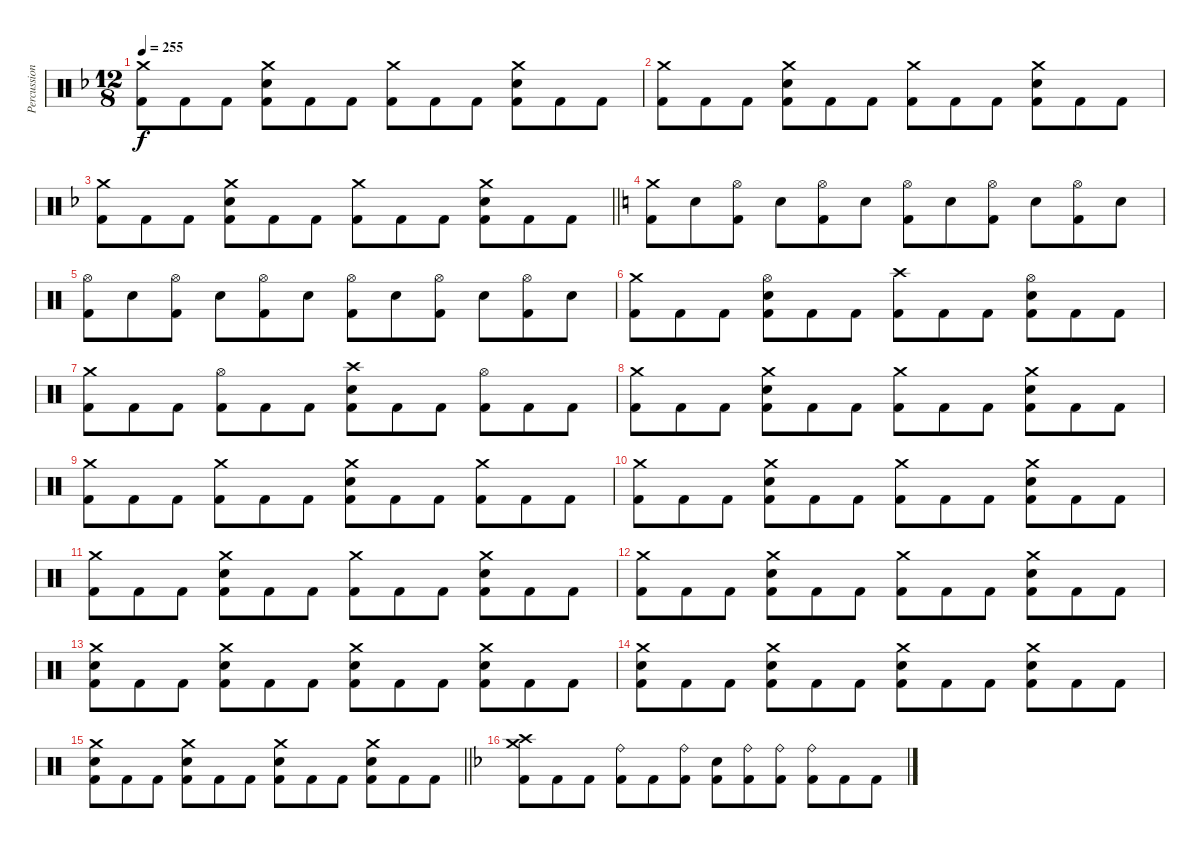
\track ("Percussion" "Percussion") {instrument percussion}
\staff {score}
\articulation defaults
\ts (12 8)
\tempo 255
\clef neutral
\ks dminor
("Crash medium (hit)" "Kick (hit) 2").8{dy f} "Kick (hit) 2".8 "Kick (hit) 2".8 ("Crash medium (hit)" "Electric Snare (hit)" "Kick (hit) 2").8 "Kick (hit) 2".8 "Kick (hit) 2".8 ("Crash medium (hit)" "Kick (hit) 2").8 "Kick (hit) 2".8 "Kick (hit) 2".8 ("Crash medium (hit)" "Electric Snare (hit)" "Kick (hit) 2").8 "Kick (hit) 2".8 "Kick (hit) 2".8 |
("Crash medium (hit)" "Kick (hit) 2").8 "Kick (hit) 2".8 "Kick (hit) 2".8 ("Crash medium (hit)" "Electric Snare (hit)" "Kick (hit) 2").8 "Kick (hit) 2".8 "Kick (hit) 2".8 ("Crash medium (hit)" "Kick (hit) 2").8 "Kick (hit) 2".8 "Kick (hit) 2".8 ("Crash medium (hit)" "Electric Snare (hit)" "Kick (hit) 2").8 "Kick (hit) 2".8 "Kick (hit) 2".8 |
\barLineRight lightlight
("Crash medium (hit)" "Kick (hit) 2").8 "Kick (hit) 2".8 "Kick (hit) 2".8 ("Crash medium (hit)" "Electric Snare (hit)" "Kick (hit) 2").8 "Kick (hit) 2".8 "Kick (hit) 2".8 ("Crash medium (hit)" "Kick (hit) 2").8 "Kick (hit) 2".8 "Kick (hit) 2".8 ("Crash medium (hit)" "Electric Snare (hit)" "Kick (hit) 2").8 "Kick (hit) 2".8 "Kick (hit) 2".8 |
\section ("" "")
\ks c
("Crash medium (hit)" "Kick (hit) 2").8 "Electric Snare (hit)".8 ("Hi-Hat (open)" "Kick (hit) 2").8 "Electric Snare (hit)".8 ("Hi-Hat (open)" "Kick (hit) 2").8 "Electric Snare (hit)".8 ("Hi-Hat (open)" "Kick (hit) 2").8 "Electric Snare (hit)".8 ("Hi-Hat (open)" "Kick (hit) 2").8 "Electric Snare (hit)".8 ("Hi-Hat (open)" "Kick (hit) 2").8 "Electric Snare (hit)".8 |
("Hi-Hat (open)" "Kick (hit) 2").8 "Electric Snare (hit)".8 ("Hi-Hat (open)" "Kick (hit) 2").8 "Electric Snare (hit)".8 ("Hi-Hat (open)" "Kick (hit) 2").8 "Electric Snare (hit)".8 ("Hi-Hat (open)" "Kick (hit) 2").8 "Electric Snare (hit)".8 ("Hi-Hat (open)" "Kick (hit) 2").8 "Electric Snare (hit)".8 ("Hi-Hat (open)" "Kick (hit) 2").8 "Electric Snare (hit)".8 |
("Crash medium (hit)" "Kick (hit) 2").8 "Kick (hit) 2".8 "Kick (hit) 2".8 ("Hi-Hat (open)" "Electric Snare (hit)" "Kick (hit) 2").8 "Kick (hit) 2".8 "Kick (hit) 2".8 ("Crash high (hit)" "Kick (hit) 2").8 "Kick (hit) 2".8 "Kick (hit) 2".8 ("Hi-Hat (open)" "Electric Snare (hit)" "Kick (hit) 2").8 "Kick (hit) 2".8 "Kick (hit) 2".8 |
("Crash medium (hit)" "Kick (hit) 2").8 "Kick (hit) 2".8 "Kick (hit) 2".8 ("Hi-Hat (open)" "Kick (hit) 2").8 "Kick (hit) 2".8 "Kick (hit) 2".8 ("Crash high (hit)" "Electric Snare (hit)" "Kick (hit) 2").8 "Kick (hit) 2".8 "Kick (hit) 2".8 ("Hi-Hat (open)" "Kick (hit) 2").8 "Kick (hit) 2".8 "Kick (hit) 2".8 |
("Crash medium (hit)" "Kick (hit) 2").8 "Kick (hit) 2".8 "Kick (hit) 2".8 ("Crash medium (hit)" "Electric Snare (hit)" "Kick (hit) 2").8 "Kick (hit) 2".8 "Kick (hit) 2".8 ("Crash medium (hit)" "Kick (hit) 2").8 "Kick (hit) 2".8 "Kick (hit) 2".8 ("Crash medium (hit)" "Electric Snare (hit)" "Kick (hit) 2").8 "Kick (hit) 2".8 "Kick (hit) 2".8 |
("Crash medium (hit)" "Kick (hit) 2").8 "Kick (hit) 2".8 "Kick (hit) 2".8 ("Crash medium (hit)" "Kick (hit) 2").8 "Kick (hit) 2".8 "Kick (hit) 2".8 ("Crash medium (hit)" "Electric Snare (hit)" "Kick (hit) 2").8 "Kick (hit) 2".8 "Kick (hit) 2".8 ("Crash medium (hit)" "Kick (hit) 2").8 "Kick (hit) 2".8 "Kick (hit) 2".8 |
("Crash medium (hit)" "Kick (hit) 2").8 "Kick (hit) 2".8 "Kick (hit) 2".8 ("Crash medium (hit)" "Electric Snare (hit)" "Kick (hit) 2").8 "Kick (hit) 2".8 "Kick (hit) 2".8 ("Crash medium (hit)" "Kick (hit) 2").8 "Kick (hit) 2".8 "Kick (hit) 2".8 ("Crash medium (hit)" "Electric Snare (hit)" "Kick (hit) 2").8 "Kick (hit) 2".8 "Kick (hit) 2".8 |
("Crash medium (hit)" "Kick (hit) 2").8 "Kick (hit) 2".8 "Kick (hit) 2".8 ("Crash medium (hit)" "Electric Snare (hit)" "Kick (hit) 2").8 "Kick (hit) 2".8 "Kick (hit) 2".8 ("Crash medium (hit)" "Kick (hit) 2").8 "Kick (hit) 2".8 "Kick (hit) 2".8 ("Crash medium (hit)" "Electric Snare (hit)" "Kick (hit) 2").8 "Kick (hit) 2".8 "Kick (hit) 2".8 |
("Crash medium (hit)" "Kick (hit) 2").8 "Kick (hit) 2".8 "Kick (hit) 2".8 ("Crash medium (hit)" "Electric Snare (hit)" "Kick (hit) 2").8 "Kick (hit) 2".8 "Kick (hit) 2".8 ("Crash medium (hit)" "Kick (hit) 2").8 "Kick (hit) 2".8 "Kick (hit) 2".8 ("Crash medium (hit)" "Electric Snare (hit)" "Kick (hit) 2").8 "Kick (hit) 2".8 "Kick (hit) 2".8 |
("Crash medium (hit)" "Electric Snare (hit)" "Kick (hit) 2").8 "Kick (hit) 2".8 "Kick (hit) 2".8 ("Crash medium (hit)" "Electric Snare (hit)" "Kick (hit) 2").8 "Kick (hit) 2".8 "Kick (hit) 2".8 ("Crash medium (hit)" "Electric Snare (hit)" "Kick (hit) 2").8 "Kick (hit) 2".8 "Kick (hit) 2".8 ("Crash medium (hit)" "Electric Snare (hit)" "Kick (hit) 2").8 "Kick (hit) 2".8 "Kick (hit) 2".8 |
("Crash medium (hit)" "Electric Snare (hit)" "Kick (hit) 2").8 "Kick (hit) 2".8 "Kick (hit) 2".8 ("Crash medium (hit)" "Electric Snare (hit)" "Kick (hit) 2").8 "Kick (hit) 2".8 "Kick (hit) 2".8 ("Crash medium (hit)" "Electric Snare (hit)" "Kick (hit) 2").8 "Kick (hit) 2".8 "Kick (hit) 2".8 ("Crash medium (hit)" "Electric Snare (hit)" "Kick (hit) 2").8 "Kick (hit) 2".8 "Kick (hit) 2".8 |
\barLineRight lightlight
("Crash medium (hit)" "Electric Snare (hit)" "Kick (hit) 2").8 "Kick (hit) 2".8 "Kick (hit) 2".8 ("Crash medium (hit)" "Electric Snare (hit)" "Kick (hit) 2").8 "Kick (hit) 2".8 "Kick (hit) 2".8 ("Crash medium (hit)" "Electric Snare (hit)" "Kick (hit) 2").8 "Kick (hit) 2".8 "Kick (hit) 2".8 ("Crash medium (hit)" "Electric Snare (hit)" "Kick (hit) 2").8 "Kick (hit) 2".8 "Kick (hit) 2".8 |
\section ("" "")
\ks dminor
("Crash medium (hit)" "Crash high (hit)" "Kick (hit) 2").8 "Kick (hit) 2".8 "Kick (hit) 2".8 ("Ride (bell)" "Kick (hit) 2").8 "Kick (hit) 2".8 ("Ride (bell)" "Kick (hit) 2").8 ("Electric Snare (hit)" "Kick (hit) 2").8 ("Ride (bell)" "Kick (hit) 2").8 ("Ride (bell)" "Kick (hit) 2").8 ("Ride (bell)" "Kick (hit) 2").8 "Kick (hit) 2".8 "Kick (hit) 2".8
